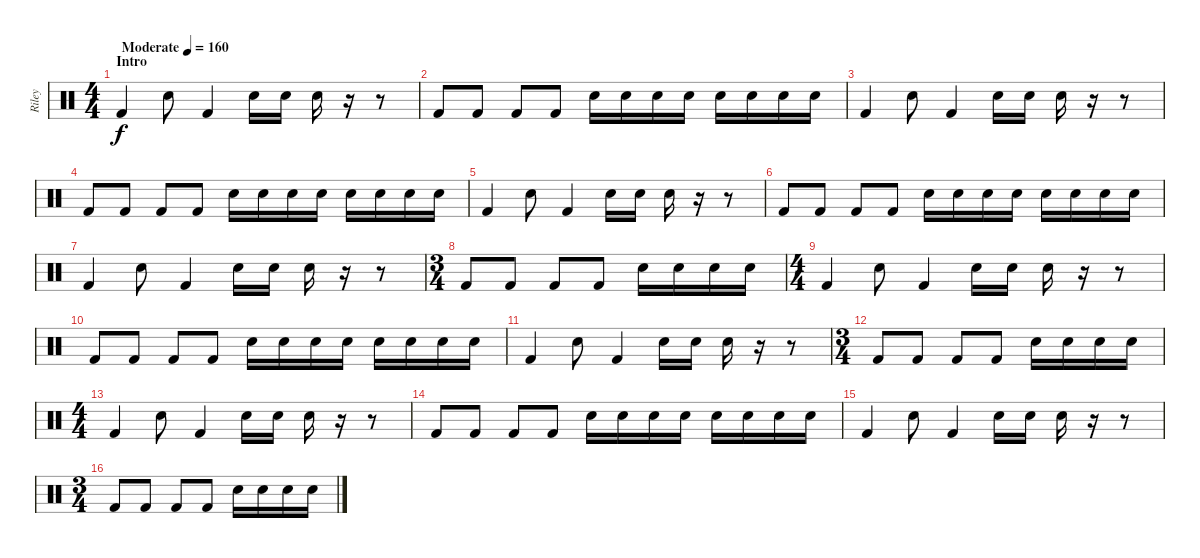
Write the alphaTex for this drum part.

\track ("Riley" "Riley") {instrument percussion}
\staff {score}
\articulation defaults
\ts (4 4)
\section ("" "Intro")
\tempo (160 "Moderate")
\clef neutral
\ks c "Kick (hit) 2".4{dy f} "Electric Snare (hit)".8 "Kick (hit) 2".4 "Electric Snare (hit)".16 "Electric Snare (hit)".16 "Electric Snare (hit)".16
r.16 r.8 |
"Kick (hit) 2".8 "Kick (hit) 2".8 "Kick (hit) 2".8 "Kick (hit) 2".8 "Electric Snare (hit)".16 "Electric Snare (hit)".16 "Electric Snare (hit)".16 "Electric Snare (hit)".16 "Electric Snare (hit)".16 "Electric Snare (hit)".16 "Electric Snare (hit)".16 "Electric Snare (hit)".16 |
"Kick (hit) 2".4 "Electric Snare (hit)".8 "Kick (hit) 2".4 "Electric Snare (hit)".16 "Electric Snare (hit)".16 "Electric Snare (hit)".16 r.16 r.8 |
"Kick (hit) 2".8 "Kick (hit) 2".8 "Kick (hit) 2".8 "Kick (hit) 2".8 "Electric Snare (hit)".16 "Electric Snare (hit)".16 "Electric Snare (hit)".16 "Electric Snare (hit)".16 "Electric Snare (hit)".16 "Electric Snare (hit)".16 "Electric Snare (hit)".16 "Electric Snare (hit)".16 |
"Kick (hit) 2".4 "Electric Snare (hit)".8 "Kick (hit) 2".4 "Electric Snare (hit)".16 "Electric Snare (hit)".16 "Electric Snare (hit)".16 r.16 r.8 |
"Kick (hit) 2".8 "Kick (hit) 2".8 "Kick (hit) 2".8 "Kick (hit) 2".8 "Electric Snare (hit)".16 "Electric Snare (hit)".16 "Electric Snare (hit)".16 "Electric Snare (hit)".16 "Electric Snare (hit)".16 "Electric Snare (hit)".16 "Electric Snare (hit)".16 "Electric Snare (hit)".16 |
"Kick (hit) 2".4 "Electric Snare (hit)".8 "Kick (hit) 2".4 "Electric Snare (hit)".16 "Electric Snare (hit)".16 "Electric Snare (hit)".16 r.16 r.8 |
\ts (3 4)
"Kick (hit) 2".8 "Kick (hit) 2".8 "Kick (hit) 2".8 "Kick (hit) 2".8 "Electric Snare (hit)".16 "Electric Snare (hit)".16 "Electric Snare (hit)".16 "Electric Snare (hit)".16 |
\ts (4 4)
"Kick (hit) 2".4 "Electric Snare (hit)".8 "Kick (hit) 2".4 "Electric Snare (hit)".16 "Electric Snare (hit)".16 "Electric Snare (hit)".16 r.16 r.8 |
"Kick (hit) 2".8 "Kick (hit) 2".8 "Kick (hit) 2".8 "Kick (hit) 2".8 "Electric Snare (hit)".16 "Electric Snare (hit)".16 "Electric Snare (hit)".16 "Electric Snare (hit)".16 "Electric Snare (hit)".16 "Electric Snare (hit)".16 "Electric Snare (hit)".16 "Electric Snare (hit)".16 |
"Kick (hit) 2".4 "Electric Snare (hit)".8 "Kick (hit) 2".4 "Electric Snare (hit)".16 "Electric Snare (hit)".16 "Electric Snare (hit)".16 r.16 r.8 |
\ts (3 4)
"Kick (hit) 2".8 "Kick (hit) 2".8 "Kick (hit) 2".8 "Kick (hit) 2".8 "Electric Snare (hit)".16 "Electric Snare (hit)".16 "Electric Snare (hit)".16 "Electric Snare (hit)".16 |
\ts (4 4)
"Kick (hit) 2".4 "Electric Snare (hit)".8 "Kick (hit) 2".4 "Electric Snare (hit)".16 "Electric Snare (hit)".16 "Electric Snare (hit)".16 r.16 r.8 |
"Kick (hit) 2".8 "Kick (hit) 2".8 "Kick (hit) 2".8 "Kick (hit) 2".8 "Electric Snare (hit)".16 "Electric Snare (hit)".16 "Electric Snare (hit)".16 "Electric Snare (hit)".16 "Electric Snare (hit)".16 "Electric Snare (hit)".16 "Electric Snare (hit)".16 "Electric Snare (hit)".16 |
"Kick (hit) 2".4 "Electric Snare (hit)".8 "Kick (hit) 2".4 "Electric Snare (hit)".16 "Electric Snare (hit)".16 "Electric Snare (hit)".16 r.16 r.8 |
\ts (3 4)
"Kick (hit) 2".8 "Kick (hit) 2".8 "Kick (hit) 2".8 "Kick (hit) 2".8 "Electric Snare (hit)".16 "Electric Snare (hit)".16 "Electric Snare (hit)".16 "Electric Snare (hit)".16
